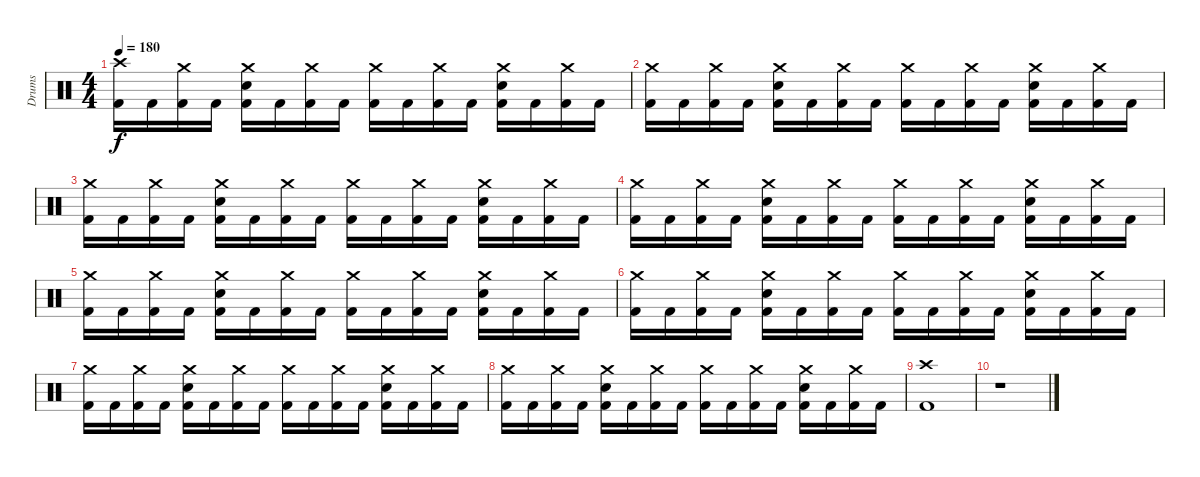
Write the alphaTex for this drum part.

\track ("Drums" "Drums") {instrument percussion}
\staff {score}
\articulation defaults
\ts (4 4)
\tempo 180
\clef neutral
\ks c
("Crash high (hit)" "Kick (hit) 2").16{dy f} "Kick (hit) 2".16 ("Crash medium (hit)" "Kick (hit) 2").16 "Kick (hit) 2".16 ("Crash medium (hit)" "Electric Snare (hit)" "Kick (hit) 2").16 "Kick (hit) 2".16 ("Crash medium (hit)" "Kick (hit) 2").16 "Kick (hit) 2".16 ("Crash medium (hit)" "Kick (hit) 2").16 "Kick (hit) 2".16 ("Crash medium (hit)" "Kick (hit) 2").16 "Kick (hit) 2".16 ("Crash medium (hit)" "Electric Snare (hit)" "Kick (hit) 2").16 "Kick (hit) 2".16 ("Crash medium (hit)" "Kick (hit) 2").16 "Kick (hit) 2".16 |
("Crash medium (hit)" "Kick (hit) 2").16 "Kick (hit) 2".16 ("Crash medium (hit)" "Kick (hit) 2").16 "Kick (hit) 2".16 ("Crash medium (hit)" "Electric Snare (hit)" "Kick (hit) 2").16 "Kick (hit) 2".16 ("Crash medium (hit)" "Kick (hit) 2").16 "Kick (hit) 2".16 ("Crash medium (hit)" "Kick (hit) 2").16 "Kick (hit) 2".16 ("Crash medium (hit)" "Kick (hit) 2").16 "Kick (hit) 2".16 ("Crash medium (hit)" "Electric Snare (hit)" "Kick (hit) 2").16 "Kick (hit) 2".16 ("Crash medium (hit)" "Kick (hit) 2").16 "Kick (hit) 2".16 |
("Crash medium (hit)" "Kick (hit) 2").16 "Kick (hit) 2".16 ("Crash medium (hit)" "Kick (hit) 2").16 "Kick (hit) 2".16 ("Crash medium (hit)" "Electric Snare (hit)" "Kick (hit) 2").16 "Kick (hit) 2".16 ("Crash medium (hit)" "Kick (hit) 2").16 "Kick (hit) 2".16 ("Crash medium (hit)" "Kick (hit) 2").16 "Kick (hit) 2".16 ("Crash medium (hit)" "Kick (hit) 2").16 "Kick (hit) 2".16 ("Crash medium (hit)" "Electric Snare (hit)" "Kick (hit) 2").16 "Kick (hit) 2".16 ("Crash medium (hit)" "Kick (hit) 2").16 "Kick (hit) 2".16 |
("Crash medium (hit)" "Kick (hit) 2").16 "Kick (hit) 2".16 ("Crash medium (hit)" "Kick (hit) 2").16 "Kick (hit) 2".16 ("Crash medium (hit)" "Electric Snare (hit)" "Kick (hit) 2").16 "Kick (hit) 2".16 ("Crash medium (hit)" "Kick (hit) 2").16 "Kick (hit) 2".16 ("Crash medium (hit)" "Kick (hit) 2").16 "Kick (hit) 2".16 ("Crash medium (hit)" "Kick (hit) 2").16 "Kick (hit) 2".16 ("Crash medium (hit)" "Electric Snare (hit)" "Kick (hit) 2").16 "Kick (hit) 2".16 ("Crash medium (hit)" "Kick (hit) 2").16 "Kick (hit) 2".16 |
("Crash medium (hit)" "Kick (hit) 2").16 "Kick (hit) 2".16 ("Crash medium (hit)" "Kick (hit) 2").16 "Kick (hit) 2".16 ("Crash medium (hit)" "Electric Snare (hit)" "Kick (hit) 2").16 "Kick (hit) 2".16 ("Crash medium (hit)" "Kick (hit) 2").16 "Kick (hit) 2".16 ("Crash medium (hit)" "Kick (hit) 2").16 "Kick (hit) 2".16 ("Crash medium (hit)" "Kick (hit) 2").16 "Kick (hit) 2".16 ("Crash medium (hit)" "Electric Snare (hit)" "Kick (hit) 2").16 "Kick (hit) 2".16 ("Crash medium (hit)" "Kick (hit) 2").16 "Kick (hit) 2".16 |
("Crash medium (hit)" "Kick (hit) 2").16 "Kick (hit) 2".16 ("Crash medium (hit)" "Kick (hit) 2").16 "Kick (hit) 2".16 ("Crash medium (hit)" "Electric Snare (hit)" "Kick (hit) 2").16 "Kick (hit) 2".16 ("Crash medium (hit)" "Kick (hit) 2").16 "Kick (hit) 2".16 ("Crash medium (hit)" "Kick (hit) 2").16 "Kick (hit) 2".16 ("Crash medium (hit)" "Kick (hit) 2").16 "Kick (hit) 2".16 ("Crash medium (hit)" "Electric Snare (hit)" "Kick (hit) 2").16 "Kick (hit) 2".16 ("Crash medium (hit)" "Kick (hit) 2").16 "Kick (hit) 2".16 |
("Crash medium (hit)" "Kick (hit) 2").16 "Kick (hit) 2".16 ("Crash medium (hit)" "Kick (hit) 2").16 "Kick (hit) 2".16 ("Crash medium (hit)" "Electric Snare (hit)" "Kick (hit) 2").16 "Kick (hit) 2".16 ("Crash medium (hit)" "Kick (hit) 2").16 "Kick (hit) 2".16 ("Crash medium (hit)" "Kick (hit) 2").16 "Kick (hit) 2".16 ("Crash medium (hit)" "Kick (hit) 2").16 "Kick (hit) 2".16 ("Crash medium (hit)" "Electric Snare (hit)" "Kick (hit) 2").16 "Kick (hit) 2".16 ("Crash medium (hit)" "Kick (hit) 2").16 "Kick (hit) 2".16 |
("Crash medium (hit)" "Kick (hit) 2").16 "Kick (hit) 2".16 ("Crash medium (hit)" "Kick (hit) 2").16 "Kick (hit) 2".16 ("Crash medium (hit)" "Electric Snare (hit)" "Kick (hit) 2").16 "Kick (hit) 2".16 ("Crash medium (hit)" "Kick (hit) 2").16 "Kick (hit) 2".16 ("Crash medium (hit)" "Kick (hit) 2").16 "Kick (hit) 2".16 ("Crash medium (hit)" "Kick (hit) 2").16 "Kick (hit) 2".16 ("Crash medium (hit)" "Electric Snare (hit)" "Kick (hit) 2").16 "Kick (hit) 2".16 ("Crash medium (hit)" "Kick (hit) 2").16 "Kick (hit) 2".16 |
("Crash high (hit)" "Kick (hit) 2").1 |
r.1
